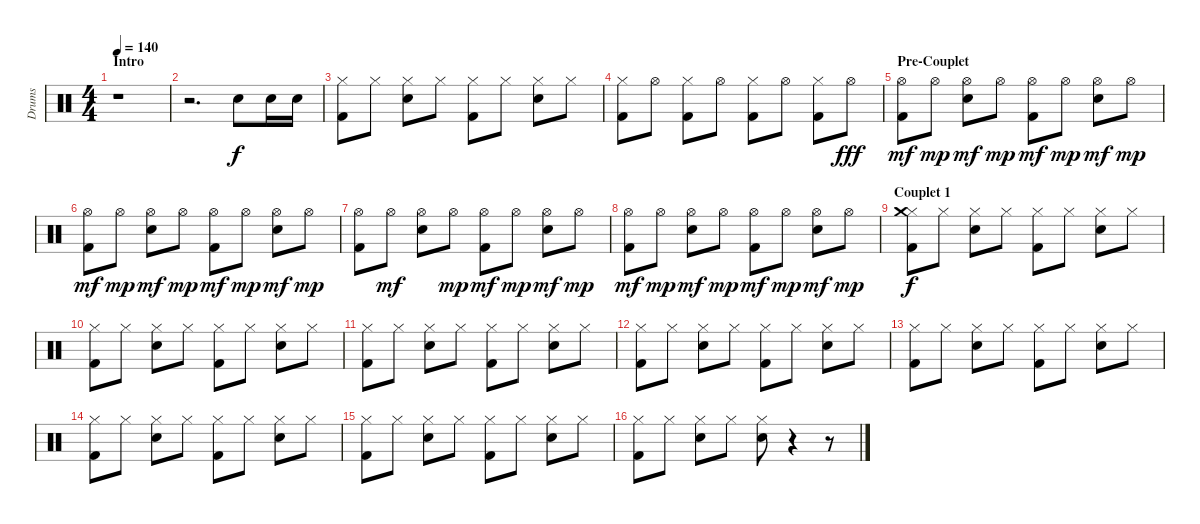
\track ("Drums" "Drums") {instrument percussion}
\staff {score}
\articulation defaults
\ts (4 4)
\section ("" "Intro")
\tempo 140
\clef neutral
\ks c
r.1{dy f} |
r.2{d} "Electric Snare (hit)".8 "Electric Snare (hit)".16 "Electric Snare (hit)".16 |
("Hi-Hat (closed)" "Kick (hit) 2").8 "Hi-Hat (closed)".8 ("Hi-Hat (closed)" "Electric Snare (hit)").8 "Hi-Hat (closed)".8 ("Hi-Hat (closed)" "Kick (hit) 2").8 "Hi-Hat (closed)".8 ("Hi-Hat (closed)" "Electric Snare (hit)").8 "Hi-Hat (closed)".8 |
("Hi-Hat (closed)" "Kick (hit) 2").8 "Hi-Hat (open)".8 ("Hi-Hat (closed)" "Kick (hit) 2").8 "Hi-Hat (open)".8 ("Hi-Hat (closed)" "Kick (hit) 2").8 "Hi-Hat (open)".8 ("Hi-Hat (closed)" "Kick (hit) 2").8 "Hi-Hat (open)".8{dy fff} |
\section ("" "Pre-Couplet")
("Hi-Hat (open)" "Kick (hit) 2").8{dy mf} "Hi-Hat (open)".8{dy mp} ("Hi-Hat (open)" "Electric Snare (hit)").8{dy mf} "Hi-Hat (open)".8{dy mp} ("Hi-Hat (open)" "Kick (hit) 2").8{dy mf} "Hi-Hat (open)".8{dy mp} ("Hi-Hat (open)" "Electric Snare (hit)").8{dy mf} "Hi-Hat (open)".8{dy mp} |
("Hi-Hat (open)" "Kick (hit) 2").8{dy mf} "Hi-Hat (open)".8{dy mp} ("Hi-Hat (open)" "Electric Snare (hit)").8{dy mf} "Hi-Hat (open)".8{dy mp} ("Hi-Hat (open)" "Kick (hit) 2").8{dy mf} "Hi-Hat (open)".8{dy mp} ("Hi-Hat (open)" "Electric Snare (hit)").8{dy mf} "Hi-Hat (open)".8{dy mp} |
("Hi-Hat (open)" "Kick (hit) 2").8 "Hi-Hat (open)".8{dy mf} ("Hi-Hat (open)" "Electric Snare (hit)").8 "Hi-Hat (open)".8{dy mp} ("Hi-Hat (open)" "Kick (hit) 2").8{dy mf} "Hi-Hat (open)".8{dy mp} ("Hi-Hat (open)" "Electric Snare (hit)").8{dy mf} "Hi-Hat (open)".8{dy mp} |
("Hi-Hat (open)" "Kick (hit) 2").8{dy mf} "Hi-Hat (open)".8{dy mp} ("Hi-Hat (open)" "Electric Snare (hit)").8{dy mf} "Hi-Hat (open)".8{dy mp} ("Hi-Hat (open)" "Kick (hit) 2").8{dy mf} "Hi-Hat (open)".8{dy mp} ("Hi-Hat (open)" "Electric Snare (hit)").8{dy mf} "Hi-Hat (open)".8{dy mp} |
\section ("" "Couplet 1")
("Hi-Hat (closed)" "Crash medium (hit)" "Kick (hit) 2").8{dy f} "Hi-Hat (closed)".8 ("Hi-Hat (closed)" "Electric Snare (hit)").8 "Hi-Hat (closed)".8 ("Hi-Hat (closed)" "Kick (hit) 2").8 "Hi-Hat (closed)".8 ("Hi-Hat (closed)" "Electric Snare (hit)").8 "Hi-Hat (closed)".8 |
("Hi-Hat (closed)" "Kick (hit) 2").8 "Hi-Hat (closed)".8 ("Hi-Hat (closed)" "Electric Snare (hit)").8 "Hi-Hat (closed)".8 ("Hi-Hat (closed)" "Kick (hit) 2").8 "Hi-Hat (closed)".8 ("Hi-Hat (closed)" "Electric Snare (hit)").8 "Hi-Hat (closed)".8 |
("Hi-Hat (closed)" "Kick (hit) 2").8 "Hi-Hat (closed)".8 ("Hi-Hat (closed)" "Electric Snare (hit)").8 "Hi-Hat (closed)".8 ("Hi-Hat (closed)" "Kick (hit) 2").8 "Hi-Hat (closed)".8 ("Hi-Hat (closed)" "Electric Snare (hit)").8 "Hi-Hat (closed)".8 |
("Hi-Hat (closed)" "Kick (hit) 2").8 "Hi-Hat (closed)".8 ("Hi-Hat (closed)" "Electric Snare (hit)").8 "Hi-Hat (closed)".8 ("Hi-Hat (closed)" "Kick (hit) 2").8 "Hi-Hat (closed)".8 ("Hi-Hat (closed)" "Electric Snare (hit)").8 "Hi-Hat (closed)".8 |
("Hi-Hat (closed)" "Kick (hit) 2").8 "Hi-Hat (closed)".8 ("Hi-Hat (closed)" "Electric Snare (hit)").8 "Hi-Hat (closed)".8 ("Hi-Hat (closed)" "Kick (hit) 2").8 "Hi-Hat (closed)".8 ("Hi-Hat (closed)" "Electric Snare (hit)").8 "Hi-Hat (closed)".8 |
("Hi-Hat (closed)" "Kick (hit) 2").8 "Hi-Hat (closed)".8 ("Hi-Hat (closed)" "Electric Snare (hit)").8 "Hi-Hat (closed)".8 ("Hi-Hat (closed)" "Kick (hit) 2").8 "Hi-Hat (closed)".8 ("Hi-Hat (closed)" "Electric Snare (hit)").8 "Hi-Hat (closed)".8 |
("Hi-Hat (closed)" "Kick (hit) 2").8 "Hi-Hat (closed)".8 ("Hi-Hat (closed)" "Electric Snare (hit)").8 "Hi-Hat (closed)".8 ("Hi-Hat (closed)" "Kick (hit) 2").8 "Hi-Hat (closed)".8 ("Hi-Hat (closed)" "Electric Snare (hit)").8 "Hi-Hat (closed)".8 |
("Hi-Hat (closed)" "Kick (hit) 2").8 "Hi-Hat (closed)".8 ("Hi-Hat (closed)" "Electric Snare (hit)").8 "Hi-Hat (closed)".8 ("Hi-Hat (closed)" "Electric Snare (hit)").8 r.4 r.8
